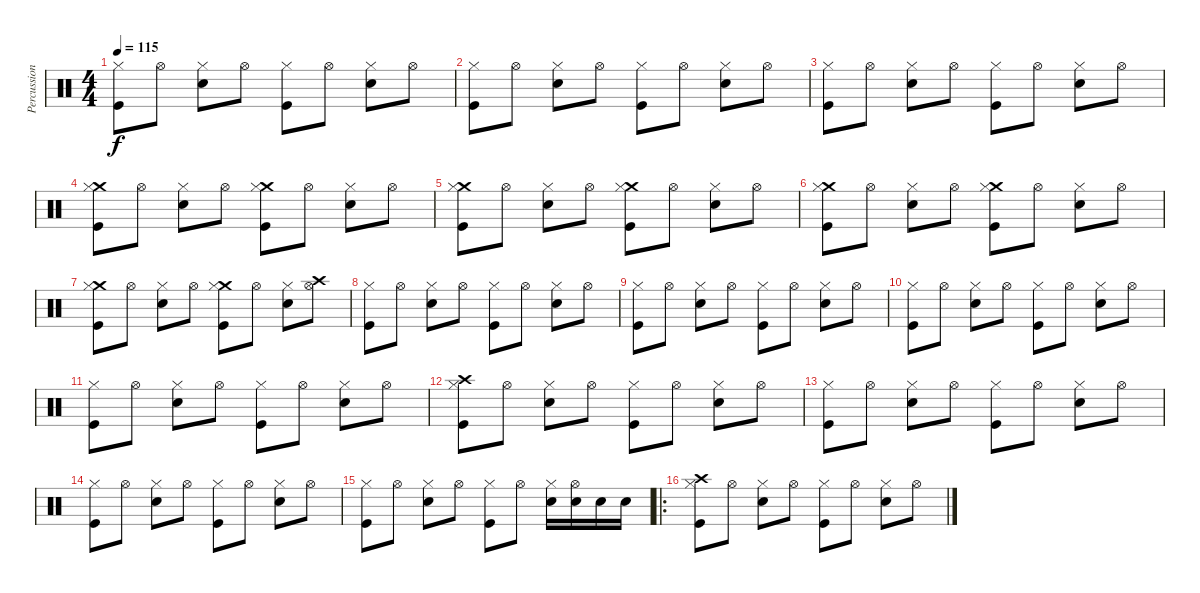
\track ("Percussion" "Percussion") {instrument percussion}
\staff {score}
\articulation defaults
\ts (4 4)
\tempo 115
\clef neutral
\ks c
("Hi-Hat (closed)" "Kick (hit)").8{dy f} "Hi-Hat (open)".8 ("Hi-Hat (closed)" "Snare (hit) 2").8 "Hi-Hat (open)".8 ("Hi-Hat (closed)" "Kick (hit)").8 "Hi-Hat (open)".8 ("Hi-Hat (closed)" "Snare (hit) 2").8 "Hi-Hat (open)".8 |
("Hi-Hat (closed)" "Kick (hit)").8 "Hi-Hat (open)".8 ("Hi-Hat (closed)" "Snare (hit) 2").8 "Hi-Hat (open)".8 ("Hi-Hat (closed)" "Kick (hit)").8 "Hi-Hat (open)".8 ("Hi-Hat (closed)" "Snare (hit) 2").8 "Hi-Hat (open)".8 |
("Hi-Hat (closed)" "Kick (hit)").8 "Hi-Hat (open)".8 ("Hi-Hat (closed)" "Snare (hit) 2").8 "Hi-Hat (open)".8 ("Hi-Hat (closed)" "Kick (hit)").8 "Hi-Hat (open)".8 ("Hi-Hat (closed)" "Snare (hit) 2").8 "Hi-Hat (open)".8 |
("Crash medium (hit)" "Hi-Hat (closed)" "Kick (hit)").8 "Hi-Hat (open)".8 ("Hi-Hat (closed)" "Snare (hit) 2").8 "Hi-Hat (open)".8 ("Crash medium (hit)" "Hi-Hat (closed)" "Kick (hit)").8 "Hi-Hat (open)".8 ("Hi-Hat (closed)" "Snare (hit) 2").8 "Hi-Hat (open)".8 |
("Crash medium (hit)" "Hi-Hat (closed)" "Kick (hit)").8 "Hi-Hat (open)".8 ("Hi-Hat (closed)" "Snare (hit) 2").8 "Hi-Hat (open)".8 ("Crash medium (hit)" "Hi-Hat (closed)" "Kick (hit)").8 "Hi-Hat (open)".8 ("Hi-Hat (closed)" "Snare (hit) 2").8 "Hi-Hat (open)".8 |
("Crash medium (hit)" "Hi-Hat (closed)" "Kick (hit)").8 "Hi-Hat (open)".8 ("Hi-Hat (closed)" "Snare (hit) 2").8 "Hi-Hat (open)".8 ("Crash medium (hit)" "Hi-Hat (closed)" "Kick (hit)").8 "Hi-Hat (open)".8 ("Hi-Hat (closed)" "Snare (hit) 2").8 "Hi-Hat (open)".8 |
("Crash medium (hit)" "Hi-Hat (closed)" "Kick (hit)").8 "Hi-Hat (open)".8 ("Hi-Hat (closed)" "Snare (hit) 2").8 "Hi-Hat (open)".8 ("Crash medium (hit)" "Hi-Hat (closed)" "Kick (hit)").8 "Hi-Hat (open)".8 ("Hi-Hat (closed)" "Snare (hit) 2").8 ("Crash high (hit)" "Hi-Hat (open)").8 |
("Hi-Hat (closed)" "Kick (hit)").8 "Hi-Hat (open)".8 ("Hi-Hat (closed)" "Snare (hit) 2").8 "Hi-Hat (open)".8 ("Hi-Hat (closed)" "Kick (hit)").8 "Hi-Hat (open)".8 ("Hi-Hat (closed)" "Snare (hit) 2").8 "Hi-Hat (open)".8 |
("Hi-Hat (closed)" "Kick (hit)").8 "Hi-Hat (open)".8 ("Hi-Hat (closed)" "Snare (hit) 2").8 "Hi-Hat (open)".8 ("Hi-Hat (closed)" "Kick (hit)").8 "Hi-Hat (open)".8 ("Hi-Hat (closed)" "Snare (hit) 2").8 "Hi-Hat (open)".8 |
("Hi-Hat (closed)" "Kick (hit)").8 "Hi-Hat (open)".8 ("Hi-Hat (closed)" "Snare (hit) 2").8 "Hi-Hat (open)".8 ("Hi-Hat (closed)" "Kick (hit)").8 "Hi-Hat (open)".8 ("Hi-Hat (closed)" "Snare (hit) 2").8 "Hi-Hat (open)".8 |
("Hi-Hat (closed)" "Kick (hit)").8 "Hi-Hat (open)".8 ("Hi-Hat (closed)" "Snare (hit) 2").8 "Hi-Hat (open)".8 ("Hi-Hat (closed)" "Kick (hit)").8 "Hi-Hat (open)".8 ("Hi-Hat (closed)" "Snare (hit) 2").8 "Hi-Hat (open)".8 |
("Crash high (hit)" "Hi-Hat (closed)" "Kick (hit)").8 "Hi-Hat (open)".8 ("Hi-Hat (closed)" "Snare (hit) 2").8 "Hi-Hat (open)".8 ("Hi-Hat (closed)" "Kick (hit)").8 "Hi-Hat (open)".8 ("Hi-Hat (closed)" "Snare (hit) 2").8 "Hi-Hat (open)".8 |
("Hi-Hat (closed)" "Kick (hit)").8 "Hi-Hat (open)".8 ("Hi-Hat (closed)" "Snare (hit) 2").8 "Hi-Hat (open)".8 ("Hi-Hat (closed)" "Kick (hit)").8 "Hi-Hat (open)".8 ("Hi-Hat (closed)" "Snare (hit) 2").8 "Hi-Hat (open)".8 |
("Hi-Hat (closed)" "Kick (hit)").8 "Hi-Hat (open)".8 ("Hi-Hat (closed)" "Snare (hit) 2").8 "Hi-Hat (open)".8 ("Hi-Hat (closed)" "Kick (hit)").8 "Hi-Hat (open)".8 ("Hi-Hat (closed)" "Snare (hit) 2").8 "Hi-Hat (open)".8 |
("Hi-Hat (closed)" "Kick (hit)").8 "Hi-Hat (open)".8 ("Hi-Hat (closed)" "Snare (hit) 2").8 "Hi-Hat (open)".8 ("Hi-Hat (closed)" "Kick (hit)").8 "Hi-Hat (open)".8 ("Hi-Hat (closed)" "Snare (hit) 2").16 ("Hi-Hat (open)" "Snare (hit) 2").16 "Snare (hit) 2".16 "Snare (hit) 2".16 |
\ro
("Crash high (hit)" "Hi-Hat (closed)" "Kick (hit)").8 "Hi-Hat (open)".8 ("Hi-Hat (closed)" "Snare (hit) 2").8 "Hi-Hat (open)".8 ("Hi-Hat (closed)" "Kick (hit)").8 "Hi-Hat (open)".8 ("Hi-Hat (closed)" "Snare (hit) 2").8 "Hi-Hat (open)".8
